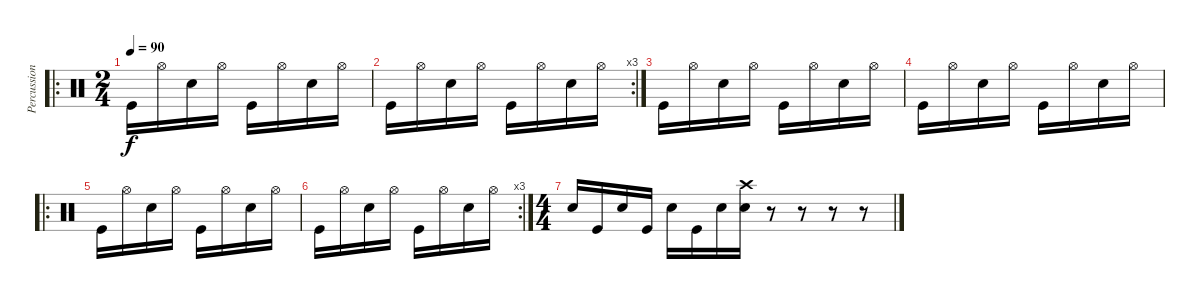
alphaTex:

\track ("Percussion" "Percussion") {instrument percussion}
\staff {score}
\articulation defaults
\ro
\ts (2 4)
\tempo 90
\clef neutral
\ks c "Kick (hit)".16{dy f} "Hi-Hat (open)".16 "Snare (hit) 2".16 "Hi-Hat (open)".16 "Kick (hit)".16 "Hi-Hat (open)".16 "Snare (hit) 2".16 "Hi-Hat (open)".16
|
\rc 3 "Kick (hit)".16 "Hi-Hat (open)".16 "Snare (hit) 2".16 "Hi-Hat (open)".16 "Kick (hit)".16 "Hi-Hat (open)".16 "Snare (hit) 2".16 "Hi-Hat (open)".16
|
"Kick (hit)".16 "Hi-Hat (open)".16 "Snare (hit) 2".16 "Hi-Hat (open)".16 "Kick (hit)".16 "Hi-Hat (open)".16 "Snare (hit) 2".16 "Hi-Hat (open)".16 |
"Kick (hit)".16 "Hi-Hat (open)".16 "Snare (hit) 2".16 "Hi-Hat (open)".16 "Kick (hit)".16 "Hi-Hat (open)".16 "Snare (hit) 2".16 "Hi-Hat (open)".16 |
\ro "Kick (hit)".16 "Hi-Hat (open)".16 "Snare (hit) 2".16 "Hi-Hat (open)".16 "Kick (hit)".16 "Hi-Hat (open)".16 "Snare (hit) 2".16 "Hi-Hat (open)".16
|
\rc 3 "Kick (hit)".16 "Hi-Hat (open)".16 "Snare (hit) 2".16 "Hi-Hat (open)".16 "Kick (hit)".16 "Hi-Hat (open)".16 "Snare (hit) 2".16 "Hi-Hat (open)".16
|
\ts (4 4)
"Snare (hit) 2".16 "Kick (hit)".16 "Snare (hit) 2".16 "Kick (hit)".16 "Snare (hit) 2".16 "Kick (hit)".16 "Snare (hit) 2".16 ("Snare (hit) 2" "Crash high (hit)").16 r.8 r.8 r.8 r.8
